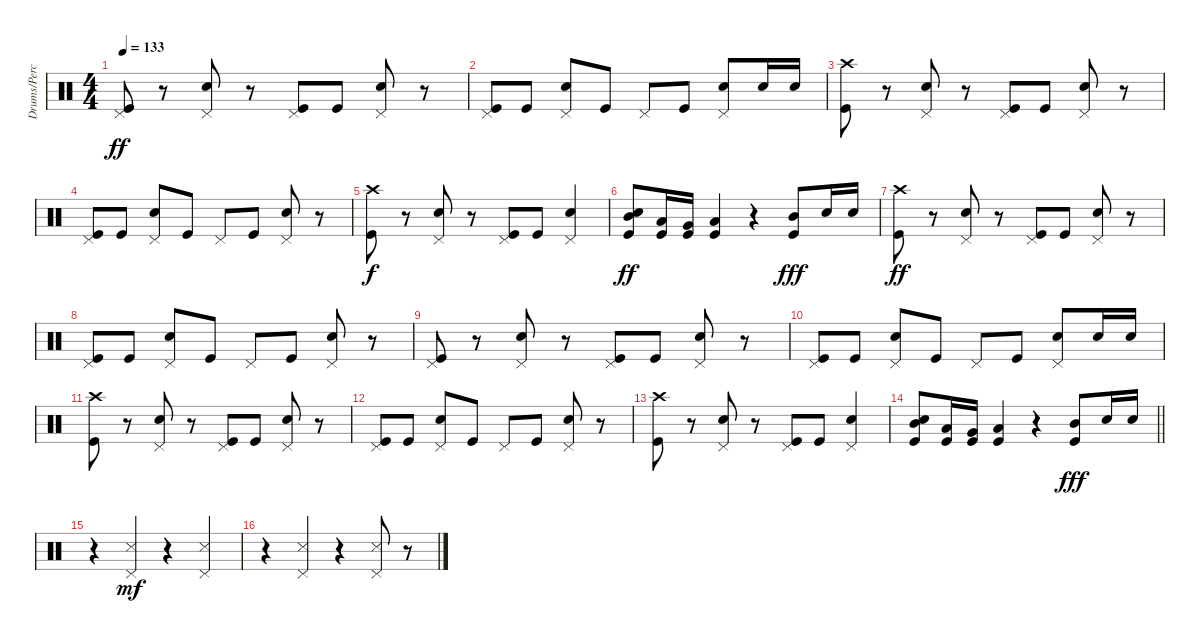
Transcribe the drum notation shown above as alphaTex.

\track ("Drums/Percussion" "Drums/Perc") {instrument percussion}
\staff {score}
\articulation defaults
\ts (4 4)
\tempo 133
\clef neutral
\ks c
("Pedal Hi-Hat (hit)" "Kick (hit)").8{dy ff} r.8 ("Pedal Hi-Hat (hit)" "Snare (hit) 2").8 r.8 ("Pedal Hi-Hat (hit)" "Kick (hit)").8 "Kick (hit)".8 ("Pedal Hi-Hat (hit)" "Snare (hit) 2").8 r.8 |
("Pedal Hi-Hat (hit)" "Kick (hit)").8 "Kick (hit)".8 ("Pedal Hi-Hat (hit)" "Snare (hit) 2").8 "Kick (hit)".8 "Pedal Hi-Hat (hit)".8 "Kick (hit)".8 ("Pedal Hi-Hat (hit)" "Snare (hit) 2").8 "Snare (hit) 2".16 "Snare (hit) 2".16 |
("Crash high (hit)" "Kick (hit)").8 r.8 ("Pedal Hi-Hat (hit)" "Snare (hit) 2").8 r.8 ("Pedal Hi-Hat (hit)" "Kick (hit)").8 "Kick (hit)".8 ("Pedal Hi-Hat (hit)" "Snare (hit) 2").8 r.8 |
("Pedal Hi-Hat (hit)" "Kick (hit)").8 "Kick (hit)".8 ("Pedal Hi-Hat (hit)" "Snare (hit) 2").8 "Kick (hit)".8 "Pedal Hi-Hat (hit)".8 "Kick (hit)".8 ("Pedal Hi-Hat (hit)" "Snare (hit) 2").8 r.8 |
("Crash high (hit)" "Kick (hit)").8{dy f} r.8 ("Pedal Hi-Hat (hit)" "Snare (hit) 2").8 r.8 ("Pedal Hi-Hat (hit)" "Kick (hit)").8 "Kick (hit)".8 ("Pedal Hi-Hat (hit)" "Snare (hit) 2").4 |
("Snare (hit) 2" "Mid Tom (hit)" "Kick (hit)").8{dy ff} ("Low Tom (hit)" "Kick (hit)").16 ("Very Low Tom (hit)" "Kick (hit)").16 ("Low Floor Tom (hit)" "Kick (hit)").4 r.4 ("Mid Tom (hit)" "Kick (hit)").8{dy fff} "Snare (hit) 2".16 "Snare (hit) 2".16 |
("Crash high (hit)" "Kick (hit)").8{dy ff} r.8 ("Pedal Hi-Hat (hit)" "Snare (hit) 2").8 r.8 ("Pedal Hi-Hat (hit)" "Kick (hit)").8 "Kick (hit)".8 ("Pedal Hi-Hat (hit)" "Snare (hit) 2").8 r.8 |
("Pedal Hi-Hat (hit)" "Kick (hit)").8 "Kick (hit)".8 ("Pedal Hi-Hat (hit)" "Snare (hit) 2").8 "Kick (hit)".8 "Pedal Hi-Hat (hit)".8 "Kick (hit)".8 ("Pedal Hi-Hat (hit)" "Snare (hit) 2").8 r.8 |
("Pedal Hi-Hat (hit)" "Kick (hit)").8 r.8 ("Pedal Hi-Hat (hit)" "Snare (hit) 2").8 r.8 ("Pedal Hi-Hat (hit)" "Kick (hit)").8 "Kick (hit)".8 ("Pedal Hi-Hat (hit)" "Snare (hit) 2").8 r.8 |
("Pedal Hi-Hat (hit)" "Kick (hit)").8 "Kick (hit)".8 ("Pedal Hi-Hat (hit)" "Snare (hit) 2").8 "Kick (hit)".8 "Pedal Hi-Hat (hit)".8 "Kick (hit)".8 ("Pedal Hi-Hat (hit)" "Snare (hit) 2").8 "Snare (hit) 2".16 "Snare (hit) 2".16 |
("Crash high (hit)" "Kick (hit)").8 r.8 ("Pedal Hi-Hat (hit)" "Snare (hit) 2").8 r.8 ("Pedal Hi-Hat (hit)" "Kick (hit)").8 "Kick (hit)".8 ("Pedal Hi-Hat (hit)" "Snare (hit) 2").8 r.8 |
("Pedal Hi-Hat (hit)" "Kick (hit)").8 "Kick (hit)".8 ("Pedal Hi-Hat (hit)" "Snare (hit) 2").8 "Kick (hit)".8 "Pedal Hi-Hat (hit)".8 "Kick (hit)".8 ("Pedal Hi-Hat (hit)" "Snare (hit) 2").8 r.8 |
("Crash high (hit)" "Kick (hit)").8 r.8 ("Pedal Hi-Hat (hit)" "Snare (hit) 2").8 r.8 ("Pedal Hi-Hat (hit)" "Kick (hit)").8 "Kick (hit)".8 ("Pedal Hi-Hat (hit)" "Snare (hit) 2").4 |
\barLineRight lightlight
("Snare (hit) 2" "Mid Tom (hit)" "Kick (hit)").8 ("Low Tom (hit)" "Kick (hit)").16 ("Very Low Tom (hit)" "Kick (hit)").16 ("Low Floor Tom (hit)" "Kick (hit)").4 r.4 ("Mid Tom (hit)" "Kick (hit)").8{dy fff} "Snare (hit) 2".16 "Snare (hit) 2".16 |
r.4 ("Pedal Hi-Hat (hit)" "Snare (side stick) 3").4{dy mf} r.4 ("Pedal Hi-Hat (hit)" "Snare (side stick) 3").4 |
r.4 ("Pedal Hi-Hat (hit)" "Snare (side stick) 3").4 r.4 ("Pedal Hi-Hat (hit)" "Snare (side stick) 3").8 r.8
